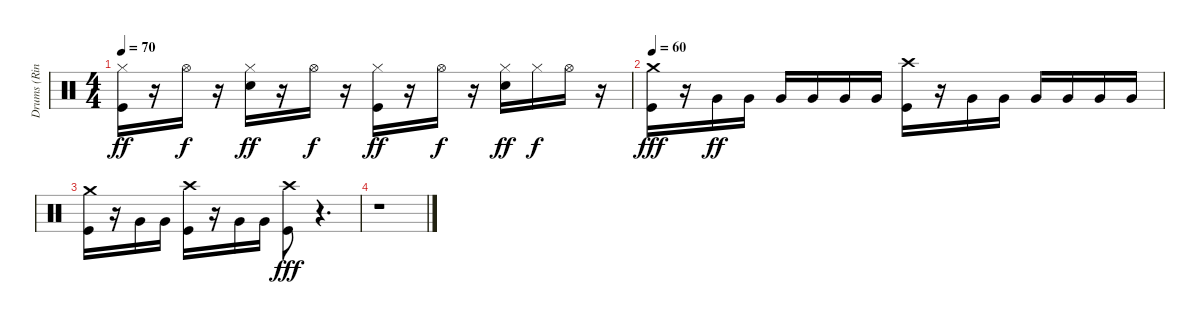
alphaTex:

\track ("Drums (Ringo)" "Drums (Rin") {instrument percussion}
\staff {score}
\articulation defaults
\ts (4 4)
\tempo 70
\clef neutral
\ks c
("Hi-Hat (closed)" "Kick (hit)").16{dy ff} r.16 "Hi-Hat (open)".16{dy f} r.16 ("Hi-Hat (closed)" "Snare (hit) 2").16{dy ff} r.16 "Hi-Hat (open)".16{dy f} r.16 ("Hi-Hat (closed)" "Kick (hit)").16{dy ff} r.16 "Hi-Hat (open)".16{dy f} r.16 ("Hi-Hat (closed)" "Snare (hit) 2").16{dy ff} "Hi-Hat (closed)".16{dy f} "Hi-Hat (open)".16 r.16 |
\tempo 65
\tempo 60
("Kick (hit)" "Crash medium (hit)").16{dy fff} r.16 "Very Low Tom (hit)".16{dy ff} "Very Low Tom (hit)".16 "Very Low Tom (hit)".16 "Very Low Tom (hit)".16 "Very Low Tom (hit)".16 "Very Low Tom (hit)".16 ("Crash high (hit)" "Kick (hit)").16 r.16 "Very Low Tom (hit)".16 "Very Low Tom (hit)".16 "Very Low Tom (hit)".16 "Very Low Tom (hit)".16 "Very Low Tom (hit)".16 "Very Low Tom (hit)".16 |
("Crash medium (hit)" "Kick (hit)").16 r.16 "Very Low Tom (hit)".16 "Very Low Tom (hit)".16 ("Crash high (hit)" "Kick (hit)").16 r.16 "Very Low Tom (hit)".16 "Very Low Tom (hit)".16 ("Kick (hit)" "Crash high (hit)").8{dy fff} r.4{d} |
r.1
